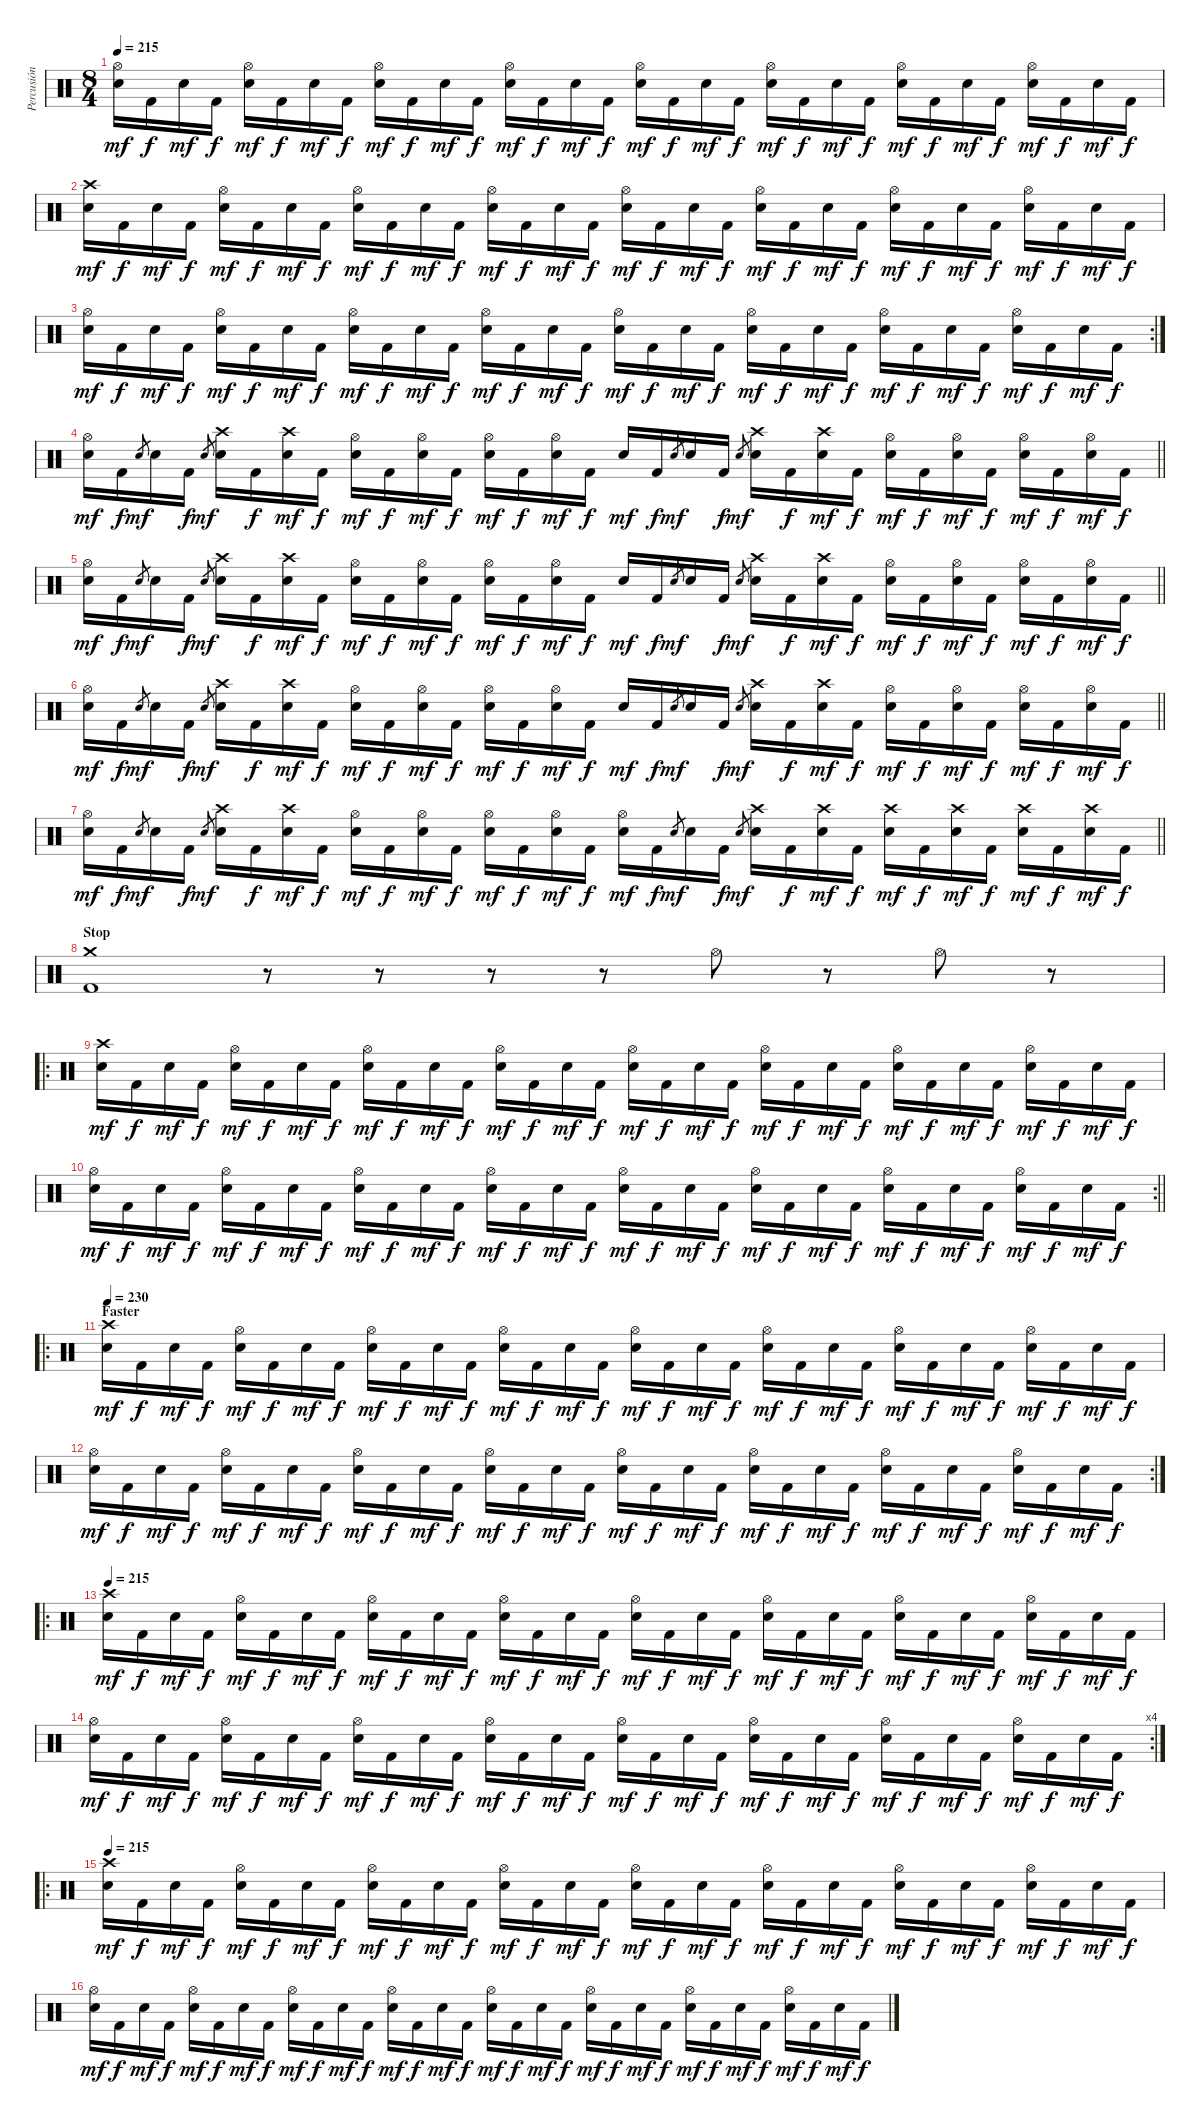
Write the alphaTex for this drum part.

\track ("Percusión" "Percusión") {instrument percussion}
\staff {score}
\articulation defaults
\ts (8 4)
\tempo 215
\clef neutral
\ks c
("Hi-Hat (open)" "Electric Snare (hit)").16{dy mf} "Kick (hit) 2".16{dy f} "Electric Snare (hit)".16{dy mf} "Kick (hit) 2".16{dy f} ("Hi-Hat (open)" "Electric Snare (hit)").16{dy mf} "Kick (hit) 2".16{dy f} "Electric Snare (hit)".16{dy mf} "Kick (hit) 2".16{dy f} ("Hi-Hat (open)" "Electric Snare (hit)").16{dy mf} "Kick (hit) 2".16{dy f} "Electric Snare (hit)".16{dy mf} "Kick (hit) 2".16{dy f} ("Hi-Hat (open)" "Electric Snare (hit)").16{dy mf} "Kick (hit) 2".16{dy f} "Electric Snare (hit)".16{dy mf} "Kick (hit) 2".16{dy f} ("Hi-Hat (open)" "Electric Snare (hit)").16{dy mf} "Kick (hit) 2".16{dy f} "Electric Snare (hit)".16{dy mf} "Kick (hit) 2".16{dy f} ("Hi-Hat (open)" "Electric Snare (hit)").16{dy mf} "Kick (hit) 2".16{dy f} "Electric Snare (hit)".16{dy mf} "Kick (hit) 2".16{dy f} ("Hi-Hat (open)" "Electric Snare (hit)").16{dy mf} "Kick (hit) 2".16{dy f} "Electric Snare (hit)".16{dy mf} "Kick (hit) 2".16{dy f} ("Hi-Hat (open)" "Electric Snare (hit)").16{dy mf} "Kick (hit) 2".16{dy f} "Electric Snare (hit)".16{dy mf} "Kick (hit) 2".16{dy f} |
("Crash high (hit)" "Electric Snare (hit)").16{dy mf} "Kick (hit) 2".16{dy f} "Electric Snare (hit)".16{dy mf} "Kick (hit) 2".16{dy f} ("Hi-Hat (open)" "Electric Snare (hit)").16{dy mf} "Kick (hit) 2".16{dy f} "Electric Snare (hit)".16{dy mf} "Kick (hit) 2".16{dy f} ("Hi-Hat (open)" "Electric Snare (hit)").16{dy mf} "Kick (hit) 2".16{dy f} "Electric Snare (hit)".16{dy mf} "Kick (hit) 2".16{dy f} ("Hi-Hat (open)" "Electric Snare (hit)").16{dy mf} "Kick (hit) 2".16{dy f} "Electric Snare (hit)".16{dy mf} "Kick (hit) 2".16{dy f} ("Hi-Hat (open)" "Electric Snare (hit)").16{dy mf} "Kick (hit) 2".16{dy f} "Electric Snare (hit)".16{dy mf} "Kick (hit) 2".16{dy f} ("Hi-Hat (open)" "Electric Snare (hit)").16{dy mf} "Kick (hit) 2".16{dy f} "Electric Snare (hit)".16{dy mf} "Kick (hit) 2".16{dy f} ("Hi-Hat (open)" "Electric Snare (hit)").16{dy mf} "Kick (hit) 2".16{dy f} "Electric Snare (hit)".16{dy mf} "Kick (hit) 2".16{dy f} ("Hi-Hat (open)" "Electric Snare (hit)").16{dy mf} "Kick (hit) 2".16{dy f} "Electric Snare (hit)".16{dy mf} "Kick (hit) 2".16{dy f} |
\rc 2
("Hi-Hat (open)" "Electric Snare (hit)").16{dy mf} "Kick (hit) 2".16{dy f} "Electric Snare (hit)".16{dy mf} "Kick (hit) 2".16{dy f} ("Hi-Hat (open)" "Electric Snare (hit)").16{dy mf} "Kick (hit) 2".16{dy f} "Electric Snare (hit)".16{dy mf} "Kick (hit) 2".16{dy f} ("Hi-Hat (open)" "Electric Snare (hit)").16{dy mf} "Kick (hit) 2".16{dy f} "Electric Snare (hit)".16{dy mf} "Kick (hit) 2".16{dy f} ("Hi-Hat (open)" "Electric Snare (hit)").16{dy mf} "Kick (hit) 2".16{dy f} "Electric Snare (hit)".16{dy mf} "Kick (hit) 2".16{dy f} ("Hi-Hat (open)" "Electric Snare (hit)").16{dy mf} "Kick (hit) 2".16{dy f} "Electric Snare (hit)".16{dy mf} "Kick (hit) 2".16{dy f} ("Hi-Hat (open)" "Electric Snare (hit)").16{dy mf} "Kick (hit) 2".16{dy f} "Electric Snare (hit)".16{dy mf} "Kick (hit) 2".16{dy f} ("Hi-Hat (open)" "Electric Snare (hit)").16{dy mf} "Kick (hit) 2".16{dy f} "Electric Snare (hit)".16{dy mf} "Kick (hit) 2".16{dy f} ("Hi-Hat (open)" "Electric Snare (hit)").16{dy mf} "Kick (hit) 2".16{dy f} "Electric Snare (hit)".16{dy mf} "Kick (hit) 2".16{dy f} |
\barLineRight lightlight
("Hi-Hat (open)" "Electric Snare (hit)").16{dy mf} "Kick (hit) 2".16{dy f} "Electric Snare (hit)".8{gr dy mf} "Electric Snare (hit)".16 "Kick (hit) 2".16{dy f} "Electric Snare (hit)".8{gr dy mf} ("Crash high (hit)" "Electric Snare (hit)").16 "Kick (hit) 2".16{dy f} ("Crash high (hit)" "Electric Snare (hit)").16{dy mf} "Kick (hit) 2".16{dy f} ("Hi-Hat (open)" "Electric Snare (hit)").16{dy mf} "Kick (hit) 2".16{dy f} ("Hi-Hat (open)" "Electric Snare (hit)").16{dy mf} "Kick (hit) 2".16{dy f} ("Hi-Hat (open)" "Electric Snare (hit)").16{dy mf} "Kick (hit) 2".16{dy f} ("Hi-Hat (open)" "Electric Snare (hit)").16{dy mf} "Kick (hit) 2".16{dy f} "Electric Snare (hit)".16{dy mf} "Kick (hit) 2".16{dy f} "Electric Snare (hit)".8{gr dy mf} "Electric Snare (hit)".16 "Kick (hit) 2".16{dy f} "Electric Snare (hit)".8{gr dy mf} ("Crash high (hit)" "Electric Snare (hit)").16 "Kick (hit) 2".16{dy f} ("Crash high (hit)" "Electric Snare (hit)").16{dy mf} "Kick (hit) 2".16{dy f} ("Hi-Hat (open)" "Electric Snare (hit)").16{dy mf} "Kick (hit) 2".16{dy f} ("Hi-Hat (open)" "Electric Snare (hit)").16{dy mf} "Kick (hit) 2".16{dy f} ("Hi-Hat (open)" "Electric Snare (hit)").16{dy mf} "Kick (hit) 2".16{dy f} ("Hi-Hat (open)" "Electric Snare (hit)").16{dy mf} "Kick (hit) 2".16{dy f} |
\barLineRight lightlight
("Hi-Hat (open)" "Electric Snare (hit)").16{dy mf} "Kick (hit) 2".16{dy f} "Electric Snare (hit)".8{gr dy mf} "Electric Snare (hit)".16 "Kick (hit) 2".16{dy f} "Electric Snare (hit)".8{gr dy mf} ("Crash high (hit)" "Electric Snare (hit)").16 "Kick (hit) 2".16{dy f} ("Crash high (hit)" "Electric Snare (hit)").16{dy mf} "Kick (hit) 2".16{dy f} ("Hi-Hat (open)" "Electric Snare (hit)").16{dy mf} "Kick (hit) 2".16{dy f} ("Hi-Hat (open)" "Electric Snare (hit)").16{dy mf} "Kick (hit) 2".16{dy f} ("Hi-Hat (open)" "Electric Snare (hit)").16{dy mf} "Kick (hit) 2".16{dy f} ("Hi-Hat (open)" "Electric Snare (hit)").16{dy mf} "Kick (hit) 2".16{dy f} "Electric Snare (hit)".16{dy mf} "Kick (hit) 2".16{dy f} "Electric Snare (hit)".8{gr dy mf} "Electric Snare (hit)".16 "Kick (hit) 2".16{dy f} "Electric Snare (hit)".8{gr dy mf} ("Crash high (hit)" "Electric Snare (hit)").16 "Kick (hit) 2".16{dy f} ("Crash high (hit)" "Electric Snare (hit)").16{dy mf} "Kick (hit) 2".16{dy f} ("Hi-Hat (open)" "Electric Snare (hit)").16{dy mf} "Kick (hit) 2".16{dy f} ("Hi-Hat (open)" "Electric Snare (hit)").16{dy mf} "Kick (hit) 2".16{dy f} ("Hi-Hat (open)" "Electric Snare (hit)").16{dy mf} "Kick (hit) 2".16{dy f} ("Hi-Hat (open)" "Electric Snare (hit)").16{dy mf} "Kick (hit) 2".16{dy f} |
\barLineRight lightlight
("Hi-Hat (open)" "Electric Snare (hit)").16{dy mf} "Kick (hit) 2".16{dy f} "Electric Snare (hit)".8{gr dy mf} "Electric Snare (hit)".16 "Kick (hit) 2".16{dy f} "Electric Snare (hit)".8{gr dy mf} ("Crash high (hit)" "Electric Snare (hit)").16 "Kick (hit) 2".16{dy f} ("Crash high (hit)" "Electric Snare (hit)").16{dy mf} "Kick (hit) 2".16{dy f} ("Hi-Hat (open)" "Electric Snare (hit)").16{dy mf} "Kick (hit) 2".16{dy f} ("Hi-Hat (open)" "Electric Snare (hit)").16{dy mf} "Kick (hit) 2".16{dy f} ("Hi-Hat (open)" "Electric Snare (hit)").16{dy mf} "Kick (hit) 2".16{dy f} ("Hi-Hat (open)" "Electric Snare (hit)").16{dy mf} "Kick (hit) 2".16{dy f} "Electric Snare (hit)".16{dy mf} "Kick (hit) 2".16{dy f} "Electric Snare (hit)".8{gr dy mf} "Electric Snare (hit)".16 "Kick (hit) 2".16{dy f} "Electric Snare (hit)".8{gr dy mf} ("Crash high (hit)" "Electric Snare (hit)").16 "Kick (hit) 2".16{dy f} ("Crash high (hit)" "Electric Snare (hit)").16{dy mf} "Kick (hit) 2".16{dy f} ("Hi-Hat (open)" "Electric Snare (hit)").16{dy mf} "Kick (hit) 2".16{dy f} ("Hi-Hat (open)" "Electric Snare (hit)").16{dy mf} "Kick (hit) 2".16{dy f} ("Hi-Hat (open)" "Electric Snare (hit)").16{dy mf} "Kick (hit) 2".16{dy f} ("Hi-Hat (open)" "Electric Snare (hit)").16{dy mf} "Kick (hit) 2".16{dy f} |
\barLineRight lightlight
("Hi-Hat (open)" "Electric Snare (hit)").16{dy mf} "Kick (hit) 2".16{dy f} "Electric Snare (hit)".8{gr dy mf} "Electric Snare (hit)".16 "Kick (hit) 2".16{dy f} "Electric Snare (hit)".8{gr dy mf} ("Crash high (hit)" "Electric Snare (hit)").16 "Kick (hit) 2".16{dy f} ("Crash high (hit)" "Electric Snare (hit)").16{dy mf} "Kick (hit) 2".16{dy f} ("Hi-Hat (open)" "Electric Snare (hit)").16{dy mf} "Kick (hit) 2".16{dy f} ("Hi-Hat (open)" "Electric Snare (hit)").16{dy mf} "Kick (hit) 2".16{dy f} ("Hi-Hat (open)" "Electric Snare (hit)").16{dy mf} "Kick (hit) 2".16{dy f} ("Hi-Hat (open)" "Electric Snare (hit)").16{dy mf} "Kick (hit) 2".16{dy f} ("Hi-Hat (open)" "Electric Snare (hit)").16{dy mf} "Kick (hit) 2".16{dy f} "Electric Snare (hit)".8{gr dy mf} "Electric Snare (hit)".16 "Kick (hit) 2".16{dy f} "Electric Snare (hit)".8{gr dy mf} ("Crash high (hit)" "Electric Snare (hit)").16 "Kick (hit) 2".16{dy f} ("Crash high (hit)" "Electric Snare (hit)").16{dy mf} "Kick (hit) 2".16{dy f} ("Crash high (hit)" "Electric Snare (hit)").16{dy mf} "Kick (hit) 2".16{dy f} ("Crash high (hit)" "Electric Snare (hit)").16{dy mf} "Kick (hit) 2".16{dy f} ("Crash high (hit)" "Electric Snare (hit)").16{dy mf} "Kick (hit) 2".16{dy f} ("Crash high (hit)" "Electric Snare (hit)").16{dy mf} "Kick (hit) 2".16{dy f} |
\section ("" "Stop")
("Crash medium (hit)" "Kick (hit) 2").1 r.8 r.8 r.8 r.8 "Hi-Hat (open)".8 r.8 "Hi-Hat (open)".8 r.8 |
\ro
("Crash high (hit)" "Electric Snare (hit)").16{dy mf} "Kick (hit) 2".16{dy f} "Electric Snare (hit)".16{dy mf} "Kick (hit) 2".16{dy f} ("Hi-Hat (open)" "Electric Snare (hit)").16{dy mf} "Kick (hit) 2".16{dy f} "Electric Snare (hit)".16{dy mf} "Kick (hit) 2".16{dy f} ("Hi-Hat (open)" "Electric Snare (hit)").16{dy mf} "Kick (hit) 2".16{dy f} "Electric Snare (hit)".16{dy mf} "Kick (hit) 2".16{dy f} ("Hi-Hat (open)" "Electric Snare (hit)").16{dy mf} "Kick (hit) 2".16{dy f} "Electric Snare (hit)".16{dy mf} "Kick (hit) 2".16{dy f} ("Hi-Hat (open)" "Electric Snare (hit)").16{dy mf} "Kick (hit) 2".16{dy f} "Electric Snare (hit)".16{dy mf} "Kick (hit) 2".16{dy f} ("Hi-Hat (open)" "Electric Snare (hit)").16{dy mf} "Kick (hit) 2".16{dy f} "Electric Snare (hit)".16{dy mf} "Kick (hit) 2".16{dy f} ("Hi-Hat (open)" "Electric Snare (hit)").16{dy mf} "Kick (hit) 2".16{dy f} "Electric Snare (hit)".16{dy mf} "Kick (hit) 2".16{dy f} ("Hi-Hat (open)" "Electric Snare (hit)").16{dy mf} "Kick (hit) 2".16{dy f} "Electric Snare (hit)".16{dy mf} "Kick (hit) 2".16{dy f} |
\rc 2
\barLineRight lightlight
("Hi-Hat (open)" "Electric Snare (hit)").16{dy mf} "Kick (hit) 2".16{dy f} "Electric Snare (hit)".16{dy mf} "Kick (hit) 2".16{dy f} ("Hi-Hat (open)" "Electric Snare (hit)").16{dy mf} "Kick (hit) 2".16{dy f} "Electric Snare (hit)".16{dy mf} "Kick (hit) 2".16{dy f} ("Hi-Hat (open)" "Electric Snare (hit)").16{dy mf} "Kick (hit) 2".16{dy f} "Electric Snare (hit)".16{dy mf} "Kick (hit) 2".16{dy f} ("Hi-Hat (open)" "Electric Snare (hit)").16{dy mf} "Kick (hit) 2".16{dy f} "Electric Snare (hit)".16{dy mf} "Kick (hit) 2".16{dy f} ("Hi-Hat (open)" "Electric Snare (hit)").16{dy mf} "Kick (hit) 2".16{dy f} "Electric Snare (hit)".16{dy mf} "Kick (hit) 2".16{dy f} ("Hi-Hat (open)" "Electric Snare (hit)").16{dy mf} "Kick (hit) 2".16{dy f} "Electric Snare (hit)".16{dy mf} "Kick (hit) 2".16{dy f} ("Hi-Hat (open)" "Electric Snare (hit)").16{dy mf} "Kick (hit) 2".16{dy f} "Electric Snare (hit)".16{dy mf} "Kick (hit) 2".16{dy f} ("Hi-Hat (open)" "Electric Snare (hit)").16{dy mf} "Kick (hit) 2".16{dy f} "Electric Snare (hit)".16{dy mf} "Kick (hit) 2".16{dy f} |
\ro
\section ("" "Faster")
\tempo 230
("Crash high (hit)" "Electric Snare (hit)").16{dy mf} "Kick (hit) 2".16{dy f} "Electric Snare (hit)".16{dy mf} "Kick (hit) 2".16{dy f} ("Hi-Hat (open)" "Electric Snare (hit)").16{dy mf} "Kick (hit) 2".16{dy f} "Electric Snare (hit)".16{dy mf} "Kick (hit) 2".16{dy f} ("Hi-Hat (open)" "Electric Snare (hit)").16{dy mf} "Kick (hit) 2".16{dy f} "Electric Snare (hit)".16{dy mf} "Kick (hit) 2".16{dy f} ("Hi-Hat (open)" "Electric Snare (hit)").16{dy mf} "Kick (hit) 2".16{dy f} "Electric Snare (hit)".16{dy mf} "Kick (hit) 2".16{dy f} ("Hi-Hat (open)" "Electric Snare (hit)").16{dy mf} "Kick (hit) 2".16{dy f} "Electric Snare (hit)".16{dy mf} "Kick (hit) 2".16{dy f} ("Hi-Hat (open)" "Electric Snare (hit)").16{dy mf} "Kick (hit) 2".16{dy f} "Electric Snare (hit)".16{dy mf} "Kick (hit) 2".16{dy f} ("Hi-Hat (open)" "Electric Snare (hit)").16{dy mf} "Kick (hit) 2".16{dy f} "Electric Snare (hit)".16{dy mf} "Kick (hit) 2".16{dy f} ("Hi-Hat (open)" "Electric Snare (hit)").16{dy mf} "Kick (hit) 2".16{dy f} "Electric Snare (hit)".16{dy mf} "Kick (hit) 2".16{dy f} |
\rc 2
("Hi-Hat (open)" "Electric Snare (hit)").16{dy mf} "Kick (hit) 2".16{dy f} "Electric Snare (hit)".16{dy mf} "Kick (hit) 2".16{dy f} ("Hi-Hat (open)" "Electric Snare (hit)").16{dy mf} "Kick (hit) 2".16{dy f} "Electric Snare (hit)".16{dy mf} "Kick (hit) 2".16{dy f} ("Hi-Hat (open)" "Electric Snare (hit)").16{dy mf} "Kick (hit) 2".16{dy f} "Electric Snare (hit)".16{dy mf} "Kick (hit) 2".16{dy f} ("Hi-Hat (open)" "Electric Snare (hit)").16{dy mf} "Kick (hit) 2".16{dy f} "Electric Snare (hit)".16{dy mf} "Kick (hit) 2".16{dy f} ("Hi-Hat (open)" "Electric Snare (hit)").16{dy mf} "Kick (hit) 2".16{dy f} "Electric Snare (hit)".16{dy mf} "Kick (hit) 2".16{dy f} ("Hi-Hat (open)" "Electric Snare (hit)").16{dy mf} "Kick (hit) 2".16{dy f} "Electric Snare (hit)".16{dy mf} "Kick (hit) 2".16{dy f} ("Hi-Hat (open)" "Electric Snare (hit)").16{dy mf} "Kick (hit) 2".16{dy f} "Electric Snare (hit)".16{dy mf} "Kick (hit) 2".16{dy f} ("Hi-Hat (open)" "Electric Snare (hit)").16{dy mf} "Kick (hit) 2".16{dy f} "Electric Snare (hit)".16{dy mf} "Kick (hit) 2".16{dy f} |
\ro
\tempo 215
("Crash high (hit)" "Electric Snare (hit)").16{dy mf} "Kick (hit) 2".16{dy f} "Electric Snare (hit)".16{dy mf} "Kick (hit) 2".16{dy f} ("Hi-Hat (open)" "Electric Snare (hit)").16{dy mf} "Kick (hit) 2".16{dy f} "Electric Snare (hit)".16{dy mf} "Kick (hit) 2".16{dy f} ("Hi-Hat (open)" "Electric Snare (hit)").16{dy mf} "Kick (hit) 2".16{dy f} "Electric Snare (hit)".16{dy mf} "Kick (hit) 2".16{dy f} ("Hi-Hat (open)" "Electric Snare (hit)").16{dy mf} "Kick (hit) 2".16{dy f} "Electric Snare (hit)".16{dy mf} "Kick (hit) 2".16{dy f} ("Hi-Hat (open)" "Electric Snare (hit)").16{dy mf} "Kick (hit) 2".16{dy f} "Electric Snare (hit)".16{dy mf} "Kick (hit) 2".16{dy f} ("Hi-Hat (open)" "Electric Snare (hit)").16{dy mf} "Kick (hit) 2".16{dy f} "Electric Snare (hit)".16{dy mf} "Kick (hit) 2".16{dy f} ("Hi-Hat (open)" "Electric Snare (hit)").16{dy mf} "Kick (hit) 2".16{dy f} "Electric Snare (hit)".16{dy mf} "Kick (hit) 2".16{dy f} ("Hi-Hat (open)" "Electric Snare (hit)").16{dy mf} "Kick (hit) 2".16{dy f} "Electric Snare (hit)".16{dy mf} "Kick (hit) 2".16{dy f} |
\rc 4
("Hi-Hat (open)" "Electric Snare (hit)").16{dy mf} "Kick (hit) 2".16{dy f} "Electric Snare (hit)".16{dy mf} "Kick (hit) 2".16{dy f} ("Hi-Hat (open)" "Electric Snare (hit)").16{dy mf} "Kick (hit) 2".16{dy f} "Electric Snare (hit)".16{dy mf} "Kick (hit) 2".16{dy f} ("Hi-Hat (open)" "Electric Snare (hit)").16{dy mf} "Kick (hit) 2".16{dy f} "Electric Snare (hit)".16{dy mf} "Kick (hit) 2".16{dy f} ("Hi-Hat (open)" "Electric Snare (hit)").16{dy mf} "Kick (hit) 2".16{dy f} "Electric Snare (hit)".16{dy mf} "Kick (hit) 2".16{dy f} ("Hi-Hat (open)" "Electric Snare (hit)").16{dy mf} "Kick (hit) 2".16{dy f} "Electric Snare (hit)".16{dy mf} "Kick (hit) 2".16{dy f} ("Hi-Hat (open)" "Electric Snare (hit)").16{dy mf} "Kick (hit) 2".16{dy f} "Electric Snare (hit)".16{dy mf} "Kick (hit) 2".16{dy f} ("Hi-Hat (open)" "Electric Snare (hit)").16{dy mf} "Kick (hit) 2".16{dy f} "Electric Snare (hit)".16{dy mf} "Kick (hit) 2".16{dy f} ("Hi-Hat (open)" "Electric Snare (hit)").16{dy mf} "Kick (hit) 2".16{dy f} "Electric Snare (hit)".16{dy mf} "Kick (hit) 2".16{dy f} |
\ro
\tempo 215
("Crash high (hit)" "Electric Snare (hit)").16{dy mf} "Kick (hit) 2".16{dy f} "Electric Snare (hit)".16{dy mf} "Kick (hit) 2".16{dy f} ("Hi-Hat (open)" "Electric Snare (hit)").16{dy mf} "Kick (hit) 2".16{dy f} "Electric Snare (hit)".16{dy mf} "Kick (hit) 2".16{dy f} ("Hi-Hat (open)" "Electric Snare (hit)").16{dy mf} "Kick (hit) 2".16{dy f} "Electric Snare (hit)".16{dy mf} "Kick (hit) 2".16{dy f} ("Hi-Hat (open)" "Electric Snare (hit)").16{dy mf} "Kick (hit) 2".16{dy f} "Electric Snare (hit)".16{dy mf} "Kick (hit) 2".16{dy f} ("Hi-Hat (open)" "Electric Snare (hit)").16{dy mf} "Kick (hit) 2".16{dy f} "Electric Snare (hit)".16{dy mf} "Kick (hit) 2".16{dy f} ("Hi-Hat (open)" "Electric Snare (hit)").16{dy mf} "Kick (hit) 2".16{dy f} "Electric Snare (hit)".16{dy mf} "Kick (hit) 2".16{dy f} ("Hi-Hat (open)" "Electric Snare (hit)").16{dy mf} "Kick (hit) 2".16{dy f} "Electric Snare (hit)".16{dy mf} "Kick (hit) 2".16{dy f} ("Hi-Hat (open)" "Electric Snare (hit)").16{dy mf} "Kick (hit) 2".16{dy f} "Electric Snare (hit)".16{dy mf} "Kick (hit) 2".16{dy f} |
("Hi-Hat (open)" "Electric Snare (hit)").16{dy mf} "Kick (hit) 2".16{dy f} "Electric Snare (hit)".16{dy mf} "Kick (hit) 2".16{dy f} ("Hi-Hat (open)" "Electric Snare (hit)").16{dy mf} "Kick (hit) 2".16{dy f} "Electric Snare (hit)".16{dy mf} "Kick (hit) 2".16{dy f} ("Hi-Hat (open)" "Electric Snare (hit)").16{dy mf} "Kick (hit) 2".16{dy f} "Electric Snare (hit)".16{dy mf} "Kick (hit) 2".16{dy f} ("Hi-Hat (open)" "Electric Snare (hit)").16{dy mf} "Kick (hit) 2".16{dy f} "Electric Snare (hit)".16{dy mf} "Kick (hit) 2".16{dy f} ("Hi-Hat (open)" "Electric Snare (hit)").16{dy mf} "Kick (hit) 2".16{dy f} "Electric Snare (hit)".16{dy mf} "Kick (hit) 2".16{dy f} ("Hi-Hat (open)" "Electric Snare (hit)").16{dy mf} "Kick (hit) 2".16{dy f} "Electric Snare (hit)".16{dy mf} "Kick (hit) 2".16{dy f} ("Hi-Hat (open)" "Electric Snare (hit)").16{dy mf} "Kick (hit) 2".16{dy f} "Electric Snare (hit)".16{dy mf} "Kick (hit) 2".16{dy f} ("Hi-Hat (open)" "Electric Snare (hit)").16{dy mf} "Kick (hit) 2".16{dy f} "Electric Snare (hit)".16{dy mf} "Kick (hit) 2".16{dy f}
